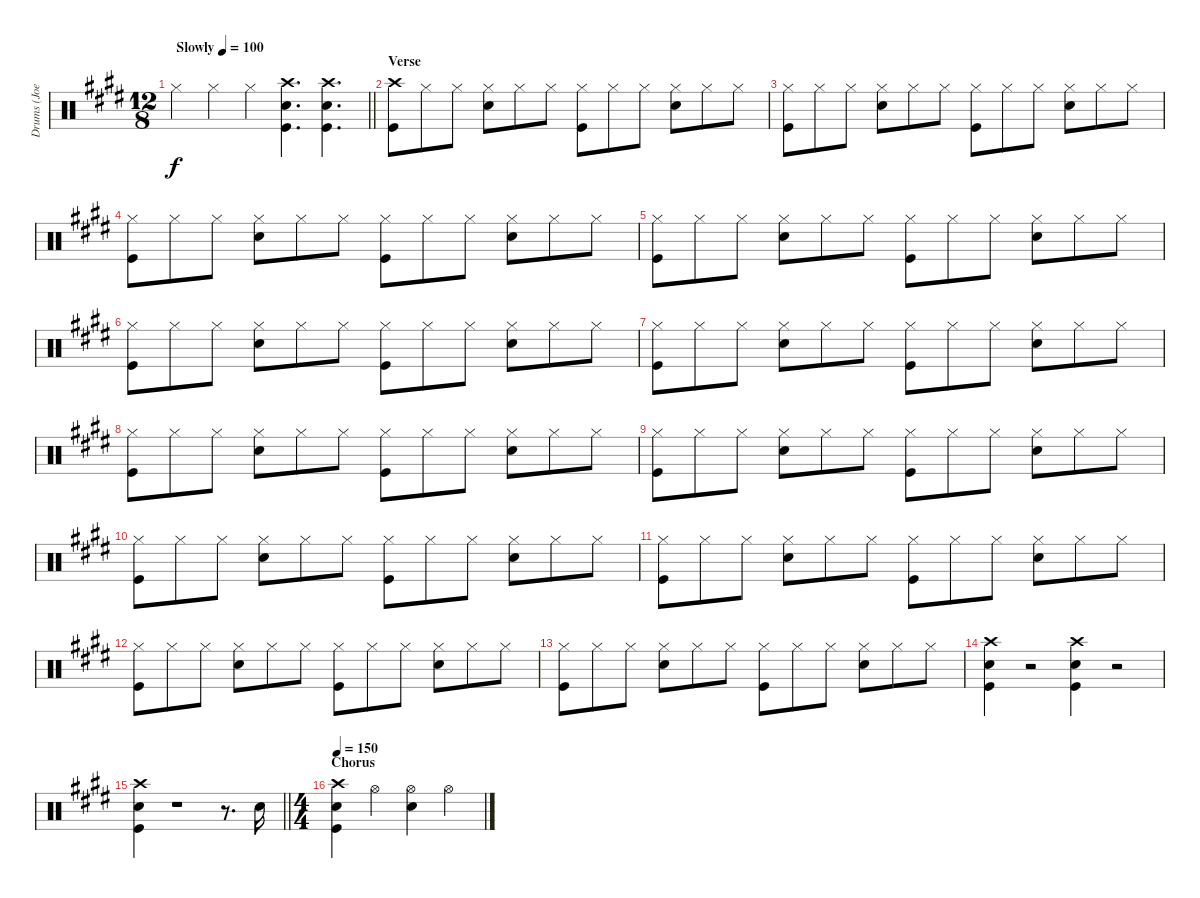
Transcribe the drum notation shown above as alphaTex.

\track ("Drums (Joey Kramer)" "Drums (Joe") {instrument percussion}
\staff {score}
\articulation defaults
\ts (12 8)
\tempo (100 "Slowly")
\clef neutral
\barLineRight lightlight
\ks c#minor "Hi-Hat (closed)".4{dy f} "Hi-Hat (closed)".4 "Hi-Hat (closed)".4
("Crash high (hit)" "Electric Snare (hit)" "Kick (hit)").4{d} ("Crash high (hit)" "Electric Snare (hit)" "Kick (hit)").4{d} |
\section ("" "Verse")
("Crash high (hit)" "Kick (hit)").8 "Hi-Hat (closed)".8 "Hi-Hat (closed)".8 ("Hi-Hat (closed)" "Electric Snare (hit)").8 "Hi-Hat (closed)".8 "Hi-Hat (closed)".8 ("Hi-Hat (closed)" "Kick (hit)").8 "Hi-Hat (closed)".8 "Hi-Hat (closed)".8 ("Hi-Hat (closed)" "Electric Snare (hit)").8 "Hi-Hat (closed)".8 "Hi-Hat (closed)".8 |
("Hi-Hat (closed)" "Kick (hit)").8 "Hi-Hat (closed)".8 "Hi-Hat (closed)".8 ("Hi-Hat (closed)" "Electric Snare (hit)").8 "Hi-Hat (closed)".8 "Hi-Hat (closed)".8 ("Hi-Hat (closed)" "Kick (hit)").8 "Hi-Hat (closed)".8 "Hi-Hat (closed)".8 ("Hi-Hat (closed)" "Electric Snare (hit)").8 "Hi-Hat (closed)".8 "Hi-Hat (closed)".8 |
("Hi-Hat (closed)" "Kick (hit)").8 "Hi-Hat (closed)".8 "Hi-Hat (closed)".8 ("Hi-Hat (closed)" "Electric Snare (hit)").8 "Hi-Hat (closed)".8 "Hi-Hat (closed)".8 ("Hi-Hat (closed)" "Kick (hit)").8 "Hi-Hat (closed)".8 "Hi-Hat (closed)".8 ("Hi-Hat (closed)" "Electric Snare (hit)").8 "Hi-Hat (closed)".8 "Hi-Hat (closed)".8 |
("Hi-Hat (closed)" "Kick (hit)").8 "Hi-Hat (closed)".8 "Hi-Hat (closed)".8 ("Hi-Hat (closed)" "Electric Snare (hit)").8 "Hi-Hat (closed)".8 "Hi-Hat (closed)".8 ("Hi-Hat (closed)" "Kick (hit)").8 "Hi-Hat (closed)".8 "Hi-Hat (closed)".8 ("Hi-Hat (closed)" "Electric Snare (hit)").8 "Hi-Hat (closed)".8 "Hi-Hat (closed)".8 |
("Hi-Hat (closed)" "Kick (hit)").8 "Hi-Hat (closed)".8 "Hi-Hat (closed)".8 ("Hi-Hat (closed)" "Electric Snare (hit)").8 "Hi-Hat (closed)".8 "Hi-Hat (closed)".8 ("Hi-Hat (closed)" "Kick (hit)").8 "Hi-Hat (closed)".8 "Hi-Hat (closed)".8 ("Hi-Hat (closed)" "Electric Snare (hit)").8 "Hi-Hat (closed)".8 "Hi-Hat (closed)".8 |
("Hi-Hat (closed)" "Kick (hit)").8 "Hi-Hat (closed)".8 "Hi-Hat (closed)".8 ("Hi-Hat (closed)" "Electric Snare (hit)").8 "Hi-Hat (closed)".8 "Hi-Hat (closed)".8 ("Hi-Hat (closed)" "Kick (hit)").8 "Hi-Hat (closed)".8 "Hi-Hat (closed)".8 ("Hi-Hat (closed)" "Electric Snare (hit)").8 "Hi-Hat (closed)".8 "Hi-Hat (closed)".8 |
("Hi-Hat (closed)" "Kick (hit)").8 "Hi-Hat (closed)".8 "Hi-Hat (closed)".8 ("Hi-Hat (closed)" "Electric Snare (hit)").8 "Hi-Hat (closed)".8 "Hi-Hat (closed)".8 ("Hi-Hat (closed)" "Kick (hit)").8 "Hi-Hat (closed)".8 "Hi-Hat (closed)".8 ("Hi-Hat (closed)" "Electric Snare (hit)").8 "Hi-Hat (closed)".8 "Hi-Hat (closed)".8 |
("Hi-Hat (closed)" "Kick (hit)").8 "Hi-Hat (closed)".8 "Hi-Hat (closed)".8 ("Hi-Hat (closed)" "Electric Snare (hit)").8 "Hi-Hat (closed)".8 "Hi-Hat (closed)".8 ("Hi-Hat (closed)" "Kick (hit)").8 "Hi-Hat (closed)".8 "Hi-Hat (closed)".8 ("Hi-Hat (closed)" "Electric Snare (hit)").8 "Hi-Hat (closed)".8 "Hi-Hat (closed)".8 |
("Hi-Hat (closed)" "Kick (hit)").8 "Hi-Hat (closed)".8 "Hi-Hat (closed)".8 ("Hi-Hat (closed)" "Electric Snare (hit)").8 "Hi-Hat (closed)".8 "Hi-Hat (closed)".8 ("Hi-Hat (closed)" "Kick (hit)").8 "Hi-Hat (closed)".8 "Hi-Hat (closed)".8 ("Hi-Hat (closed)" "Electric Snare (hit)").8 "Hi-Hat (closed)".8 "Hi-Hat (closed)".8 |
("Hi-Hat (closed)" "Kick (hit)").8 "Hi-Hat (closed)".8 "Hi-Hat (closed)".8 ("Hi-Hat (closed)" "Electric Snare (hit)").8 "Hi-Hat (closed)".8 "Hi-Hat (closed)".8 ("Hi-Hat (closed)" "Kick (hit)").8 "Hi-Hat (closed)".8 "Hi-Hat (closed)".8 ("Hi-Hat (closed)" "Electric Snare (hit)").8 "Hi-Hat (closed)".8 "Hi-Hat (closed)".8 |
("Hi-Hat (closed)" "Kick (hit)").8 "Hi-Hat (closed)".8 "Hi-Hat (closed)".8 ("Hi-Hat (closed)" "Electric Snare (hit)").8 "Hi-Hat (closed)".8 "Hi-Hat (closed)".8 ("Hi-Hat (closed)" "Kick (hit)").8 "Hi-Hat (closed)".8 "Hi-Hat (closed)".8 ("Hi-Hat (closed)" "Electric Snare (hit)").8 "Hi-Hat (closed)".8 "Hi-Hat (closed)".8 |
("Hi-Hat (closed)" "Kick (hit)").8 "Hi-Hat (closed)".8 "Hi-Hat (closed)".8 ("Hi-Hat (closed)" "Electric Snare (hit)").8 "Hi-Hat (closed)".8 "Hi-Hat (closed)".8 ("Hi-Hat (closed)" "Kick (hit)").8 "Hi-Hat (closed)".8 "Hi-Hat (closed)".8 ("Hi-Hat (closed)" "Electric Snare (hit)").8 "Hi-Hat (closed)".8 "Hi-Hat (closed)".8 |
("Crash high (hit)" "Electric Snare (hit)" "Kick (hit)").4 r.2 ("Crash high (hit)" "Electric Snare (hit)" "Kick (hit)").4 r.2 |
\barLineRight lightlight
("Crash high (hit)" "Electric Snare (hit)" "Kick (hit)").4 r.1 r.8{d} "Electric Snare (hit)".16 |
\ts (4 4)
\section ("" "Chorus")
\tempo 150
("Crash high (hit)" "Electric Snare (hit)" "Kick (hit)").4 "Hi-Hat (open)".4 ("Hi-Hat (open)" "Electric Snare (hit)").4 "Hi-Hat (open)".4
